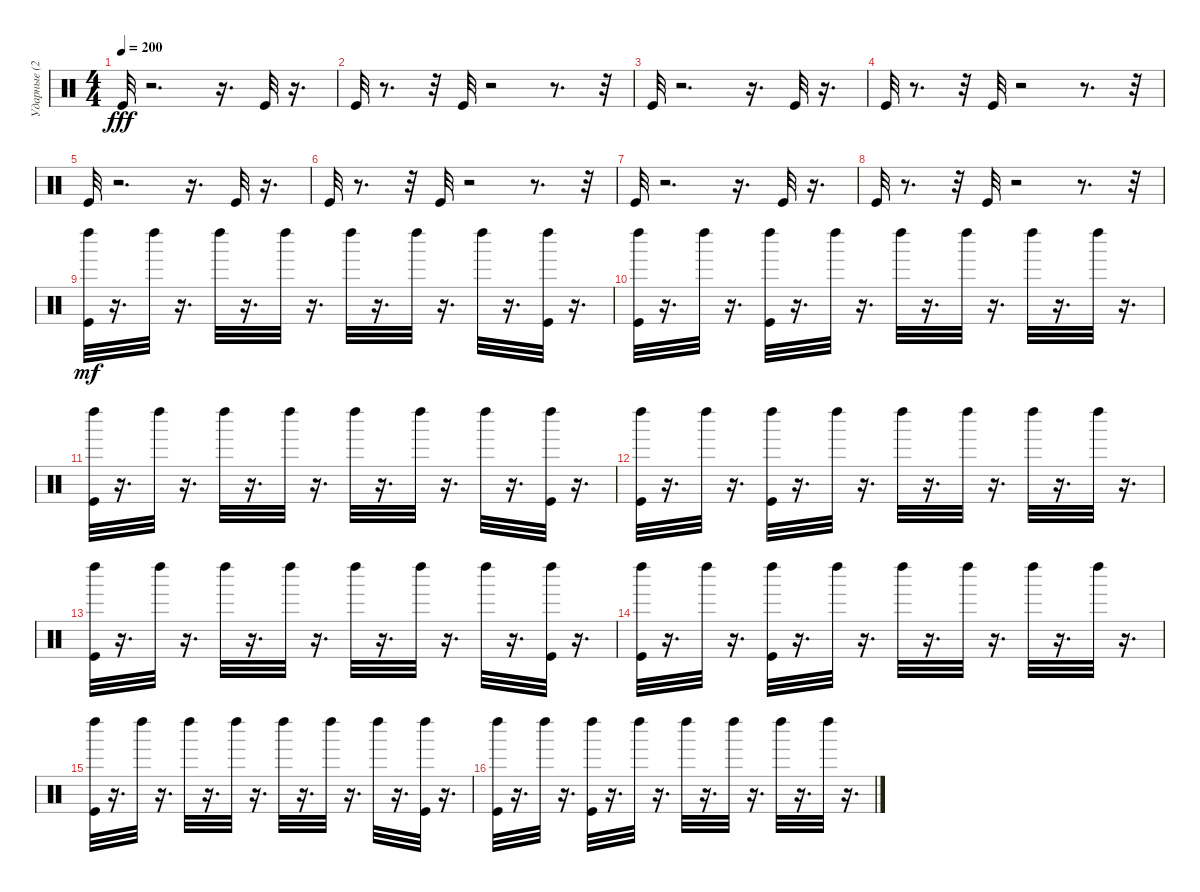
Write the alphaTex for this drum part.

\track ("Ударные (2)" "Ударные (2") {instrument percussion}
\staff {score}
\articulation defaults
\ts (4 4)
\tempo 200
\clef neutral
\ks c "Kick (hit)".32{dy fff}
r.2{d} r.16{d} "Kick (hit)".32 r.16{d} |
"Kick (hit)".32 r.8{d} r.32 "Kick (hit)".32 r.2 r.8{d} r.32 |
"Kick (hit)".32 r.2{d} r.16{d} "Kick (hit)".32 r.16{d} |
"Kick (hit)".32 r.8{d} r.32 "Kick (hit)".32 r.2 r.8{d} r.32 |
"Kick (hit)".32 r.2{d} r.16{d} "Kick (hit)".32 r.16{d} |
"Kick (hit)".32 r.8{d} r.32 "Kick (hit)".32 r.2 r.8{d} r.32 |
"Kick (hit)".32 r.2{d} r.16{d} "Kick (hit)".32 r.16{d} |
"Kick (hit)".32 r.8{d} r.32 "Kick (hit)".32 r.2 r.8{d} r.32 |
("Kick (hit)" "Left Maraca (hit)").32{dy mf} r.16{d} "Left Maraca (hit)".32 r.16{d} "Left Maraca (hit)".32 r.16{d} "Left Maraca (hit)".32 r.16{d} "Left Maraca (hit)".32 r.16{d} "Left Maraca (hit)".32 r.16{d} "Left Maraca (hit)".32 r.16{d} ("Kick (hit)" "Left Maraca (hit)").32 r.16{d} |
("Kick (hit)" "Left Maraca (hit)").32 r.16{d} "Left Maraca (hit)".32 r.16{d} ("Kick (hit)" "Left Maraca (hit)").32 r.16{d} "Left Maraca (hit)".32 r.16{d} "Left Maraca (hit)".32 r.16{d} "Left Maraca (hit)".32 r.16{d} "Left Maraca (hit)".32 r.16{d} "Left Maraca (hit)".32 r.16{d} |
("Kick (hit)" "Left Maraca (hit)").32 r.16{d} "Left Maraca (hit)".32 r.16{d} "Left Maraca (hit)".32 r.16{d} "Left Maraca (hit)".32 r.16{d} "Left Maraca (hit)".32 r.16{d} "Left Maraca (hit)".32 r.16{d} "Left Maraca (hit)".32 r.16{d} ("Kick (hit)" "Left Maraca (hit)").32 r.16{d} |
("Kick (hit)" "Left Maraca (hit)").32 r.16{d} "Left Maraca (hit)".32 r.16{d} ("Kick (hit)" "Left Maraca (hit)").32 r.16{d} "Left Maraca (hit)".32 r.16{d} "Left Maraca (hit)".32 r.16{d} "Left Maraca (hit)".32 r.16{d} "Left Maraca (hit)".32 r.16{d} "Left Maraca (hit)".32 r.16{d} |
("Kick (hit)" "Left Maraca (hit)").32 r.16{d} "Left Maraca (hit)".32 r.16{d} "Left Maraca (hit)".32 r.16{d} "Left Maraca (hit)".32 r.16{d} "Left Maraca (hit)".32 r.16{d} "Left Maraca (hit)".32 r.16{d} "Left Maraca (hit)".32 r.16{d} ("Kick (hit)" "Left Maraca (hit)").32 r.16{d} |
("Kick (hit)" "Left Maraca (hit)").32 r.16{d} "Left Maraca (hit)".32 r.16{d} ("Kick (hit)" "Left Maraca (hit)").32 r.16{d} "Left Maraca (hit)".32 r.16{d} "Left Maraca (hit)".32 r.16{d} "Left Maraca (hit)".32 r.16{d} "Left Maraca (hit)".32 r.16{d} "Left Maraca (hit)".32 r.16{d} |
("Kick (hit)" "Left Maraca (hit)").32 r.16{d} "Left Maraca (hit)".32 r.16{d} "Left Maraca (hit)".32 r.16{d} "Left Maraca (hit)".32 r.16{d} "Left Maraca (hit)".32 r.16{d} "Left Maraca (hit)".32 r.16{d} "Left Maraca (hit)".32 r.16{d} ("Kick (hit)" "Left Maraca (hit)").32 r.16{d} |
("Kick (hit)" "Left Maraca (hit)").32 r.16{d} "Left Maraca (hit)".32 r.16{d} ("Kick (hit)" "Left Maraca (hit)").32 r.16{d} "Left Maraca (hit)".32 r.16{d} "Left Maraca (hit)".32 r.16{d} "Left Maraca (hit)".32 r.16{d} "Left Maraca (hit)".32 r.16{d} "Left Maraca (hit)".32 r.16{d}
